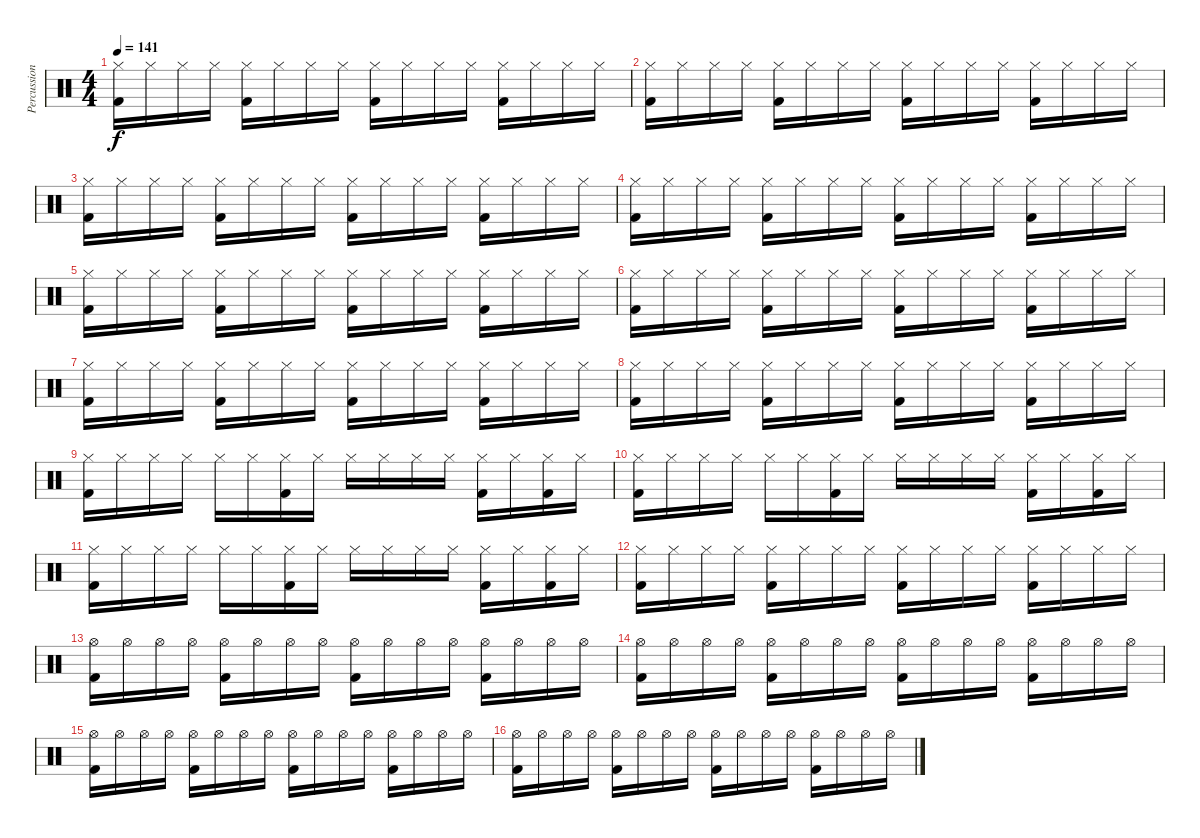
\track ("Percussion" "Percussion") {instrument percussion}
\staff {score}
\articulation defaults
\ts (4 4)
\tempo 141
\clef neutral
\ks c
("Hi-Hat (closed)" "Kick (hit) 2").16{dy f} "Hi-Hat (closed)".16 "Hi-Hat (closed)".16 "Hi-Hat (closed)".16 ("Hi-Hat (closed)" "Kick (hit) 2").16 "Hi-Hat (closed)".16 "Hi-Hat (closed)".16 "Hi-Hat (closed)".16 ("Hi-Hat (closed)" "Kick (hit) 2").16 "Hi-Hat (closed)".16 "Hi-Hat (closed)".16 "Hi-Hat (closed)".16 ("Hi-Hat (closed)" "Kick (hit) 2").16 "Hi-Hat (closed)".16 "Hi-Hat (closed)".16 "Hi-Hat (closed)".16 |
("Hi-Hat (closed)" "Kick (hit) 2").16 "Hi-Hat (closed)".16 "Hi-Hat (closed)".16 "Hi-Hat (closed)".16 ("Hi-Hat (closed)" "Kick (hit) 2").16 "Hi-Hat (closed)".16 "Hi-Hat (closed)".16 "Hi-Hat (closed)".16 ("Hi-Hat (closed)" "Kick (hit) 2").16 "Hi-Hat (closed)".16 "Hi-Hat (closed)".16 "Hi-Hat (closed)".16 ("Hi-Hat (closed)" "Kick (hit) 2").16 "Hi-Hat (closed)".16 "Hi-Hat (closed)".16 "Hi-Hat (closed)".16 |
("Hi-Hat (closed)" "Kick (hit) 2").16 "Hi-Hat (closed)".16 "Hi-Hat (closed)".16 "Hi-Hat (closed)".16 ("Hi-Hat (closed)" "Kick (hit) 2").16 "Hi-Hat (closed)".16 "Hi-Hat (closed)".16 "Hi-Hat (closed)".16 ("Hi-Hat (closed)" "Kick (hit) 2").16 "Hi-Hat (closed)".16 "Hi-Hat (closed)".16 "Hi-Hat (closed)".16 ("Hi-Hat (closed)" "Kick (hit) 2").16 "Hi-Hat (closed)".16 "Hi-Hat (closed)".16 "Hi-Hat (closed)".16 |
("Hi-Hat (closed)" "Kick (hit) 2").16 "Hi-Hat (closed)".16 "Hi-Hat (closed)".16 "Hi-Hat (closed)".16 ("Hi-Hat (closed)" "Kick (hit) 2").16 "Hi-Hat (closed)".16 "Hi-Hat (closed)".16 "Hi-Hat (closed)".16 ("Hi-Hat (closed)" "Kick (hit) 2").16 "Hi-Hat (closed)".16 "Hi-Hat (closed)".16 "Hi-Hat (closed)".16 ("Hi-Hat (closed)" "Kick (hit) 2").16 "Hi-Hat (closed)".16 "Hi-Hat (closed)".16 "Hi-Hat (closed)".16 |
("Hi-Hat (closed)" "Kick (hit) 2").16 "Hi-Hat (closed)".16 "Hi-Hat (closed)".16 "Hi-Hat (closed)".16 ("Hi-Hat (closed)" "Kick (hit) 2").16 "Hi-Hat (closed)".16 "Hi-Hat (closed)".16 "Hi-Hat (closed)".16 ("Hi-Hat (closed)" "Kick (hit) 2").16 "Hi-Hat (closed)".16 "Hi-Hat (closed)".16 "Hi-Hat (closed)".16 ("Hi-Hat (closed)" "Kick (hit) 2").16 "Hi-Hat (closed)".16 "Hi-Hat (closed)".16 "Hi-Hat (closed)".16 |
("Hi-Hat (closed)" "Kick (hit) 2").16 "Hi-Hat (closed)".16 "Hi-Hat (closed)".16 "Hi-Hat (closed)".16 ("Hi-Hat (closed)" "Kick (hit) 2").16 "Hi-Hat (closed)".16 "Hi-Hat (closed)".16 "Hi-Hat (closed)".16 ("Hi-Hat (closed)" "Kick (hit) 2").16 "Hi-Hat (closed)".16 "Hi-Hat (closed)".16 "Hi-Hat (closed)".16 ("Hi-Hat (closed)" "Kick (hit) 2").16 "Hi-Hat (closed)".16 "Hi-Hat (closed)".16 "Hi-Hat (closed)".16 |
("Hi-Hat (closed)" "Kick (hit) 2").16 "Hi-Hat (closed)".16 "Hi-Hat (closed)".16 "Hi-Hat (closed)".16 ("Hi-Hat (closed)" "Kick (hit) 2").16 "Hi-Hat (closed)".16 "Hi-Hat (closed)".16 "Hi-Hat (closed)".16 ("Hi-Hat (closed)" "Kick (hit) 2").16 "Hi-Hat (closed)".16 "Hi-Hat (closed)".16 "Hi-Hat (closed)".16 ("Hi-Hat (closed)" "Kick (hit) 2").16 "Hi-Hat (closed)".16 "Hi-Hat (closed)".16 "Hi-Hat (closed)".16 |
("Hi-Hat (closed)" "Kick (hit) 2").16 "Hi-Hat (closed)".16 "Hi-Hat (closed)".16 "Hi-Hat (closed)".16 ("Hi-Hat (closed)" "Kick (hit) 2").16 "Hi-Hat (closed)".16 "Hi-Hat (closed)".16 "Hi-Hat (closed)".16 ("Hi-Hat (closed)" "Kick (hit) 2").16 "Hi-Hat (closed)".16 "Hi-Hat (closed)".16 "Hi-Hat (closed)".16 ("Hi-Hat (closed)" "Kick (hit) 2").16 "Hi-Hat (closed)".16 "Hi-Hat (closed)".16 "Hi-Hat (closed)".16 |
("Hi-Hat (closed)" "Kick (hit) 2").16 "Hi-Hat (closed)".16 "Hi-Hat (closed)".16 "Hi-Hat (closed)".16 "Hi-Hat (closed)".16 "Hi-Hat (closed)".16 ("Hi-Hat (closed)" "Kick (hit) 2").16 "Hi-Hat (closed)".16 "Hi-Hat (closed)".16 "Hi-Hat (closed)".16 "Hi-Hat (closed)".16 "Hi-Hat (closed)".16 ("Hi-Hat (closed)" "Kick (hit) 2").16 "Hi-Hat (closed)".16 ("Hi-Hat (closed)" "Kick (hit) 2").16 "Hi-Hat (closed)".16 |
("Hi-Hat (closed)" "Kick (hit) 2").16 "Hi-Hat (closed)".16 "Hi-Hat (closed)".16 "Hi-Hat (closed)".16 "Hi-Hat (closed)".16 "Hi-Hat (closed)".16 ("Hi-Hat (closed)" "Kick (hit) 2").16 "Hi-Hat (closed)".16 "Hi-Hat (closed)".16 "Hi-Hat (closed)".16 "Hi-Hat (closed)".16 "Hi-Hat (closed)".16 ("Hi-Hat (closed)" "Kick (hit) 2").16 "Hi-Hat (closed)".16 ("Hi-Hat (closed)" "Kick (hit) 2").16 "Hi-Hat (closed)".16 |
("Hi-Hat (closed)" "Kick (hit) 2").16 "Hi-Hat (closed)".16 "Hi-Hat (closed)".16 "Hi-Hat (closed)".16 "Hi-Hat (closed)".16 "Hi-Hat (closed)".16 ("Hi-Hat (closed)" "Kick (hit) 2").16 "Hi-Hat (closed)".16 "Hi-Hat (closed)".16 "Hi-Hat (closed)".16 "Hi-Hat (closed)".16 "Hi-Hat (closed)".16 ("Hi-Hat (closed)" "Kick (hit) 2").16 "Hi-Hat (closed)".16 ("Hi-Hat (closed)" "Kick (hit) 2").16 "Hi-Hat (closed)".16 |
("Hi-Hat (closed)" "Kick (hit) 2").16 "Hi-Hat (closed)".16 "Hi-Hat (closed)".16 "Hi-Hat (closed)".16 ("Hi-Hat (closed)" "Kick (hit) 2").16 "Hi-Hat (closed)".16 "Hi-Hat (closed)".16 "Hi-Hat (closed)".16 ("Hi-Hat (closed)" "Kick (hit) 2").16 "Hi-Hat (closed)".16 "Hi-Hat (closed)".16 "Hi-Hat (closed)".16 ("Hi-Hat (closed)" "Kick (hit) 2").16 "Hi-Hat (closed)".16 "Hi-Hat (closed)".16 "Hi-Hat (closed)".16 |
("Hi-Hat (open)" "Kick (hit) 2").16 "Hi-Hat (open)".16 "Hi-Hat (open)".16 "Hi-Hat (open)".16 ("Hi-Hat (open)" "Kick (hit) 2").16 "Hi-Hat (open)".16 "Hi-Hat (open)".16 "Hi-Hat (open)".16 ("Hi-Hat (open)" "Kick (hit) 2").16 "Hi-Hat (open)".16 "Hi-Hat (open)".16 "Hi-Hat (open)".16 ("Hi-Hat (open)" "Kick (hit) 2").16 "Hi-Hat (open)".16 "Hi-Hat (open)".16 "Hi-Hat (open)".16 |
("Hi-Hat (open)" "Kick (hit) 2").16 "Hi-Hat (open)".16 "Hi-Hat (open)".16 "Hi-Hat (open)".16 ("Hi-Hat (open)" "Kick (hit) 2").16 "Hi-Hat (open)".16 "Hi-Hat (open)".16 "Hi-Hat (open)".16 ("Hi-Hat (open)" "Kick (hit) 2").16 "Hi-Hat (open)".16 "Hi-Hat (open)".16 "Hi-Hat (open)".16 ("Hi-Hat (open)" "Kick (hit) 2").16 "Hi-Hat (open)".16 "Hi-Hat (open)".16 "Hi-Hat (open)".16 |
("Hi-Hat (open)" "Kick (hit) 2").16 "Hi-Hat (open)".16 "Hi-Hat (open)".16 "Hi-Hat (open)".16 ("Hi-Hat (open)" "Kick (hit) 2").16 "Hi-Hat (open)".16 "Hi-Hat (open)".16 "Hi-Hat (open)".16 ("Hi-Hat (open)" "Kick (hit) 2").16 "Hi-Hat (open)".16 "Hi-Hat (open)".16 "Hi-Hat (open)".16 ("Hi-Hat (open)" "Kick (hit) 2").16 "Hi-Hat (open)".16 "Hi-Hat (open)".16 "Hi-Hat (open)".16 |
("Hi-Hat (open)" "Kick (hit) 2").16 "Hi-Hat (open)".16 "Hi-Hat (open)".16 "Hi-Hat (open)".16 ("Hi-Hat (open)" "Kick (hit) 2").16 "Hi-Hat (open)".16 "Hi-Hat (open)".16 "Hi-Hat (open)".16 ("Hi-Hat (open)" "Kick (hit) 2").16 "Hi-Hat (open)".16 "Hi-Hat (open)".16 "Hi-Hat (open)".16 ("Hi-Hat (open)" "Kick (hit) 2").16 "Hi-Hat (open)".16 "Hi-Hat (open)".16 "Hi-Hat (open)".16
